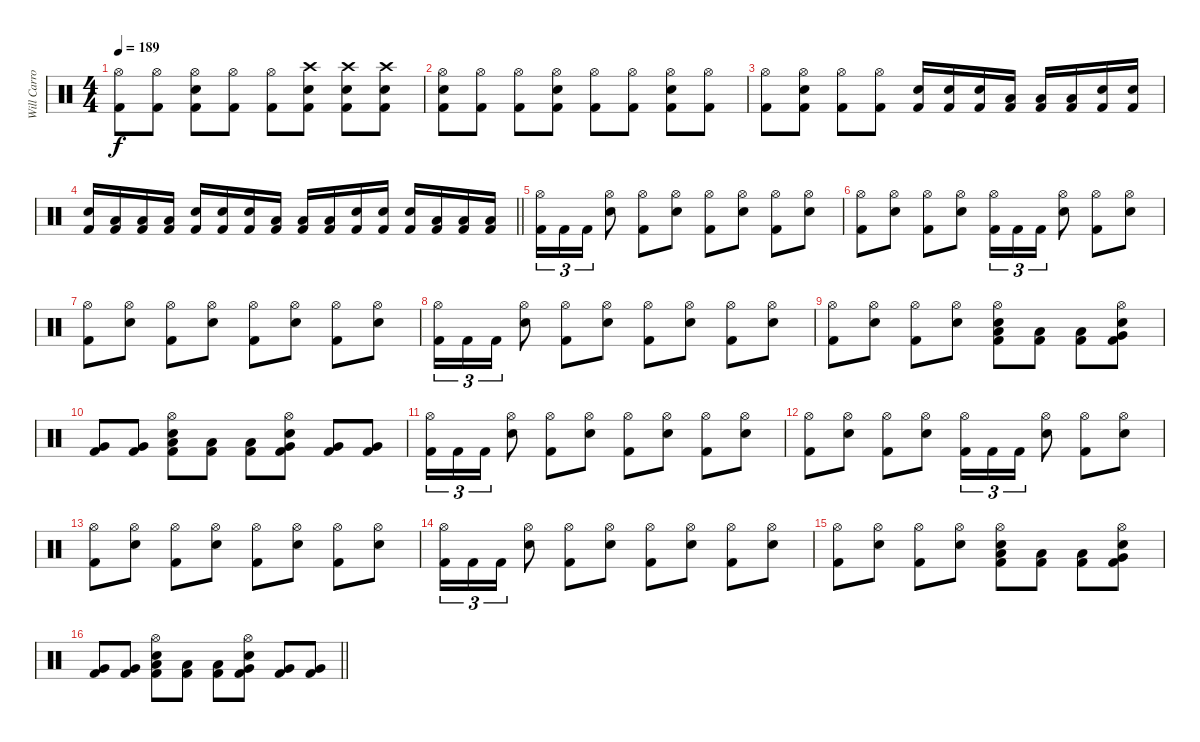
\track ("Will Carroll" "Will Carro") {instrument percussion}
\staff {score}
\articulation defaults
\ts (4 4)
\tempo 189
\clef neutral
\ks c
("Hi-Hat (open)" "Kick (hit) 2").8{dy f} ("Hi-Hat (open)" "Kick (hit) 2").8 ("Hi-Hat (open)" "Electric Snare (hit)" "Kick (hit) 2").8 ("Hi-Hat (open)" "Kick (hit) 2").8 ("Hi-Hat (open)" "Kick (hit) 2").8 ("Crash high (hit)" "Electric Snare (hit)" "Kick (hit) 2").8 ("Crash high (hit)" "Electric Snare (hit)" "Kick (hit) 2").8 ("Crash high (hit)" "Electric Snare (hit)" "Kick (hit) 2").8 |
("Hi-Hat (open)" "Electric Snare (hit)" "Kick (hit) 2").8 ("Hi-Hat (open)" "Kick (hit) 2").8 ("Hi-Hat (open)" "Kick (hit) 2").8 ("Hi-Hat (open)" "Electric Snare (hit)" "Kick (hit) 2").8 ("Hi-Hat (open)" "Kick (hit) 2").8 ("Hi-Hat (open)" "Kick (hit) 2").8 ("Hi-Hat (open)" "Electric Snare (hit)" "Kick (hit) 2").8 ("Hi-Hat (open)" "Kick (hit) 2").8 |
("Hi-Hat (open)" "Kick (hit) 2").8 ("Hi-Hat (open)" "Electric Snare (hit)" "Kick (hit) 2").8 ("Hi-Hat (open)" "Kick (hit) 2").8 ("Hi-Hat (open)" "Kick (hit) 2").8 ("Electric Snare (hit)" "Kick (hit) 2").16 ("Electric Snare (hit)" "Kick (hit) 2").16 ("Electric Snare (hit)" "Kick (hit) 2").16 ("Low Floor Tom (hit)" "Kick (hit) 2").16 ("Low Floor Tom (hit)" "Kick (hit) 2").16 ("Low Floor Tom (hit)" "Kick (hit) 2").16 ("Electric Snare (hit)" "Kick (hit) 2").16 ("Electric Snare (hit)" "Kick (hit) 2").16 |
\barLineRight lightlight
("Electric Snare (hit)" "Kick (hit) 2").16 ("Low Floor Tom (hit)" "Kick (hit) 2").16 ("Low Floor Tom (hit)" "Kick (hit) 2").16 ("Low Floor Tom (hit)" "Kick (hit) 2").16 ("Electric Snare (hit)" "Kick (hit) 2").16 ("Electric Snare (hit)" "Kick (hit) 2").16 ("Electric Snare (hit)" "Kick (hit) 2").16 ("Low Floor Tom (hit)" "Kick (hit) 2").16 ("Low Floor Tom (hit)" "Kick (hit) 2").16 ("Low Floor Tom (hit)" "Kick (hit) 2").16 ("Electric Snare (hit)" "Kick (hit) 2").16 ("Electric Snare (hit)" "Kick (hit) 2").16 ("Electric Snare (hit)" "Kick (hit) 2").16 ("Low Floor Tom (hit)" "Kick (hit) 2").16 ("Low Floor Tom (hit)" "Kick (hit) 2").16 ("Low Floor Tom (hit)" "Kick (hit) 2").16 |
("Hi-Hat (open)" "Kick (hit) 2").16{tu (3 2)} "Kick (hit) 2".16{tu (3 2)} "Kick (hit) 2".16{tu (3 2)} ("Hi-Hat (open)" "Electric Snare (hit)").8 ("Hi-Hat (open)" "Kick (hit) 2").8 ("Hi-Hat (open)" "Electric Snare (hit)").8 ("Hi-Hat (open)" "Kick (hit) 2").8 ("Hi-Hat (open)" "Electric Snare (hit)").8 ("Hi-Hat (open)" "Kick (hit) 2").8 ("Hi-Hat (open)" "Electric Snare (hit)").8 |
("Hi-Hat (open)" "Kick (hit) 2").8 ("Hi-Hat (open)" "Electric Snare (hit)").8 ("Hi-Hat (open)" "Kick (hit) 2").8 ("Hi-Hat (open)" "Electric Snare (hit)").8 ("Hi-Hat (open)" "Kick (hit) 2").16{tu (3 2)} "Kick (hit) 2".16{tu (3 2)} "Kick (hit) 2".16{tu (3 2)} ("Hi-Hat (open)" "Electric Snare (hit)").8 ("Hi-Hat (open)" "Kick (hit) 2").8 ("Hi-Hat (open)" "Electric Snare (hit)").8 |
("Hi-Hat (open)" "Kick (hit) 2").8 ("Hi-Hat (open)" "Electric Snare (hit)").8 ("Hi-Hat (open)" "Kick (hit) 2").8 ("Hi-Hat (open)" "Electric Snare (hit)").8 ("Hi-Hat (open)" "Kick (hit) 2").8 ("Hi-Hat (open)" "Electric Snare (hit)").8 ("Hi-Hat (open)" "Kick (hit) 2").8 ("Hi-Hat (open)" "Electric Snare (hit)").8 |
("Hi-Hat (open)" "Kick (hit) 2").16{tu (3 2)} "Kick (hit) 2".16{tu (3 2)} "Kick (hit) 2".16{tu (3 2)} ("Hi-Hat (open)" "Electric Snare (hit)").8 ("Hi-Hat (open)" "Kick (hit) 2").8 ("Hi-Hat (open)" "Electric Snare (hit)").8 ("Hi-Hat (open)" "Kick (hit) 2").8 ("Hi-Hat (open)" "Electric Snare (hit)").8 ("Hi-Hat (open)" "Kick (hit) 2").8 ("Hi-Hat (open)" "Electric Snare (hit)").8 |
("Hi-Hat (open)" "Kick (hit) 2").8 ("Hi-Hat (open)" "Electric Snare (hit)").8 ("Hi-Hat (open)" "Kick (hit) 2").8 ("Hi-Hat (open)" "Electric Snare (hit)").8 ("Hi-Hat (open)" "Low Floor Tom (hit)" "Electric Snare (hit)" "Kick (hit) 2").8 ("Low Floor Tom (hit)" "Kick (hit) 2").8 ("Low Floor Tom (hit)" "Kick (hit) 2").8 ("Hi-Hat (open)" "Very Low Tom (hit)" "Electric Snare (hit)" "Kick (hit) 2").8 |
("Very Low Tom (hit)" "Kick (hit) 2").8 ("Very Low Tom (hit)" "Kick (hit) 2").8 ("Hi-Hat (open)" "Low Floor Tom (hit)" "Electric Snare (hit)" "Kick (hit) 2").8 ("Low Floor Tom (hit)" "Kick (hit) 2").8 ("Low Floor Tom (hit)" "Kick (hit) 2").8 ("Hi-Hat (open)" "Very Low Tom (hit)" "Electric Snare (hit)" "Kick (hit) 2").8 ("Very Low Tom (hit)" "Kick (hit) 2").8 ("Very Low Tom (hit)" "Kick (hit) 2").8 |
("Hi-Hat (open)" "Kick (hit) 2").16{tu (3 2)} "Kick (hit) 2".16{tu (3 2)} "Kick (hit) 2".16{tu (3 2)} ("Hi-Hat (open)" "Electric Snare (hit)").8 ("Hi-Hat (open)" "Kick (hit) 2").8 ("Hi-Hat (open)" "Electric Snare (hit)").8 ("Hi-Hat (open)" "Kick (hit) 2").8 ("Hi-Hat (open)" "Electric Snare (hit)").8 ("Hi-Hat (open)" "Kick (hit) 2").8 ("Hi-Hat (open)" "Electric Snare (hit)").8 |
("Hi-Hat (open)" "Kick (hit) 2").8 ("Hi-Hat (open)" "Electric Snare (hit)").8 ("Hi-Hat (open)" "Kick (hit) 2").8 ("Hi-Hat (open)" "Electric Snare (hit)").8 ("Hi-Hat (open)" "Kick (hit) 2").16{tu (3 2)} "Kick (hit) 2".16{tu (3 2)} "Kick (hit) 2".16{tu (3 2)} ("Hi-Hat (open)" "Electric Snare (hit)").8 ("Hi-Hat (open)" "Kick (hit) 2").8 ("Hi-Hat (open)" "Electric Snare (hit)").8 |
("Hi-Hat (open)" "Kick (hit) 2").8 ("Hi-Hat (open)" "Electric Snare (hit)").8 ("Hi-Hat (open)" "Kick (hit) 2").8 ("Hi-Hat (open)" "Electric Snare (hit)").8 ("Hi-Hat (open)" "Kick (hit) 2").8 ("Hi-Hat (open)" "Electric Snare (hit)").8 ("Hi-Hat (open)" "Kick (hit) 2").8 ("Hi-Hat (open)" "Electric Snare (hit)").8 |
("Hi-Hat (open)" "Kick (hit) 2").16{tu (3 2)} "Kick (hit) 2".16{tu (3 2)} "Kick (hit) 2".16{tu (3 2)} ("Hi-Hat (open)" "Electric Snare (hit)").8 ("Hi-Hat (open)" "Kick (hit) 2").8 ("Hi-Hat (open)" "Electric Snare (hit)").8 ("Hi-Hat (open)" "Kick (hit) 2").8 ("Hi-Hat (open)" "Electric Snare (hit)").8 ("Hi-Hat (open)" "Kick (hit) 2").8 ("Hi-Hat (open)" "Electric Snare (hit)").8 |
("Hi-Hat (open)" "Kick (hit) 2").8 ("Hi-Hat (open)" "Electric Snare (hit)").8 ("Hi-Hat (open)" "Kick (hit) 2").8 ("Hi-Hat (open)" "Electric Snare (hit)").8 ("Hi-Hat (open)" "Low Floor Tom (hit)" "Electric Snare (hit)" "Kick (hit) 2").8 ("Low Floor Tom (hit)" "Kick (hit) 2").8 ("Low Floor Tom (hit)" "Kick (hit) 2").8 ("Hi-Hat (open)" "Very Low Tom (hit)" "Electric Snare (hit)" "Kick (hit) 2").8 |
\barLineRight lightlight
("Very Low Tom (hit)" "Kick (hit) 2").8 ("Very Low Tom (hit)" "Kick (hit) 2").8 ("Hi-Hat (open)" "Low Floor Tom (hit)" "Electric Snare (hit)" "Kick (hit) 2").8 ("Low Floor Tom (hit)" "Kick (hit) 2").8 ("Low Floor Tom (hit)" "Kick (hit) 2").8 ("Hi-Hat (open)" "Very Low Tom (hit)" "Electric Snare (hit)" "Kick (hit) 2").8 ("Very Low Tom (hit)" "Kick (hit) 2").8 ("Very Low Tom (hit)" "Kick (hit) 2").8
